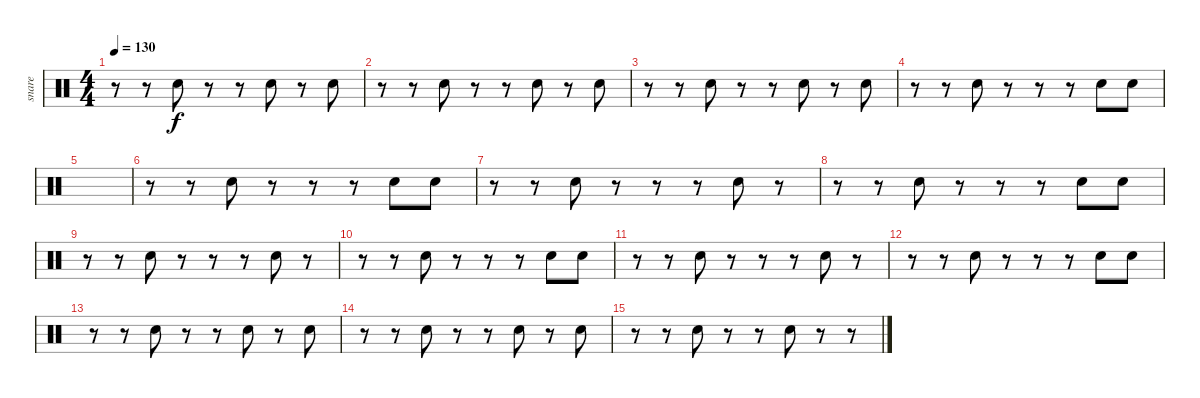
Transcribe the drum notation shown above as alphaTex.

\track ("snare" "snare") {instrument percussion}
\staff {score}
\articulation defaults
\ts (4 4)
\tempo 130
\clef neutral
\ks c
r.8{dy f} r.8 "Snare (hit) 2".8 r.8 r.8 "Snare (hit) 2".8 r.8 "Snare (hit) 2".8 |
r.8 r.8 "Snare (hit) 2".8 r.8 r.8 "Snare (hit) 2".8 r.8 "Snare (hit) 2".8 |
r.8 r.8 "Snare (hit) 2".8 r.8 r.8 "Snare (hit) 2".8 r.8 "Snare (hit) 2".8 |
r.8 r.8 "Snare (hit) 2".8 r.8 r.8 r.8 "Snare (hit) 2".8 "Snare (hit) 2".8 |
|
r.8 r.8 "Snare (hit) 2".8 r.8 r.8 r.8 "Snare (hit) 2".8 "Snare (hit) 2".8 |
r.8 r.8 "Snare (hit) 2".8 r.8 r.8 r.8 "Snare (hit) 2".8 r.8 |
r.8 r.8 "Snare (hit) 2".8 r.8 r.8 r.8 "Snare (hit) 2".8 "Snare (hit) 2".8 |
r.8 r.8 "Snare (hit) 2".8 r.8 r.8 r.8 "Snare (hit) 2".8 r.8 |
r.8 r.8 "Snare (hit) 2".8 r.8 r.8 r.8 "Snare (hit) 2".8 "Snare (hit) 2".8 |
r.8 r.8 "Snare (hit) 2".8 r.8 r.8 r.8 "Snare (hit) 2".8 r.8 |
r.8 r.8 "Snare (hit) 2".8 r.8 r.8 r.8 "Snare (hit) 2".8 "Snare (hit) 2".8 |
r.8 r.8 "Snare (hit) 2".8 r.8 r.8 "Snare (hit) 2".8 r.8 "Snare (hit) 2".8 |
r.8 r.8 "Snare (hit) 2".8 r.8 r.8 "Snare (hit) 2".8 r.8 "Snare (hit) 2".8 |
r.8 r.8 "Snare (hit) 2".8 r.8 r.8 "Snare (hit) 2".8 r.8 r.8
